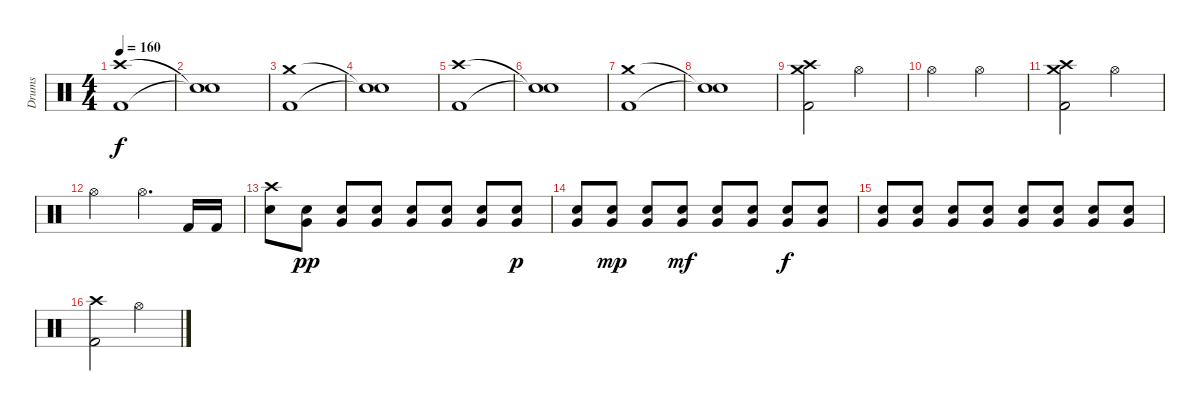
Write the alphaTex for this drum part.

\track ("Drums" "Drums") {instrument percussion}
\staff {score}
\articulation defaults
\ts (4 4)
\tempo 160
\clef neutral
\ks c
("Crash high (hit)" "Kick (hit) 2").1{dy f} |
("Snare (hit)"{t} "Snare (hit)"{t}).1 |
("Crash medium (hit)" "Kick (hit) 2").1 |
("Snare (hit)"{t} "Snare (hit)"{t}).1 |
("Crash high (hit)" "Kick (hit) 2").1 |
("Snare (hit)"{t} "Snare (hit)"{t}).1 |
("Crash medium (hit)" "Kick (hit) 2").1 |
("Snare (hit)"{t} "Snare (hit)"{t}).1 |
("Crash high (hit)" "Crash medium (hit)" "Kick (hit) 2").2 "Hi-Hat (open)".2 |
"Hi-Hat (open)".2 "Hi-Hat (open)".2 |
("Crash high (hit)" "Crash medium (hit)" "Kick (hit) 2").2 "Hi-Hat (open)".2 |
"Hi-Hat (open)".2 "Hi-Hat (open)".4{d} "Kick (hit) 2".16 "Kick (hit) 2".16 |
("Crash high (hit)" "Electric Snare (hit)").8 ("Very Low Tom (hit)" "Electric Snare (hit)").8{dy pp} ("Very Low Tom (hit)" "Electric Snare (hit)").8 ("Very Low Tom (hit)" "Electric Snare (hit)").8 ("Very Low Tom (hit)" "Electric Snare (hit)").8 ("Very Low Tom (hit)" "Electric Snare (hit)").8 ("Very Low Tom (hit)" "Electric Snare (hit)").8 ("Very Low Tom (hit)" "Electric Snare (hit)").8{dy p} |
("Very Low Tom (hit)" "Electric Snare (hit)").8 ("Very Low Tom (hit)" "Electric Snare (hit)").8{dy mp} ("Very Low Tom (hit)" "Electric Snare (hit)").8 ("Very Low Tom (hit)" "Electric Snare (hit)").8{dy mf} ("Very Low Tom (hit)" "Electric Snare (hit)").8 ("Very Low Tom (hit)" "Electric Snare (hit)").8 ("Very Low Tom (hit)" "Electric Snare (hit)").8{dy f} ("Very Low Tom (hit)" "Electric Snare (hit)").8 |
("Very Low Tom (hit)" "Electric Snare (hit)").8 ("Very Low Tom (hit)" "Electric Snare (hit)").8 ("Very Low Tom (hit)" "Electric Snare (hit)").8 ("Very Low Tom (hit)" "Electric Snare (hit)").8 ("Very Low Tom (hit)" "Electric Snare (hit)").8 ("Very Low Tom (hit)" "Electric Snare (hit)").8 ("Very Low Tom (hit)" "Electric Snare (hit)").8 ("Very Low Tom (hit)" "Electric Snare (hit)").8 |
("Crash high (hit)" "Kick (hit) 2").2 "Hi-Hat (open)".2
